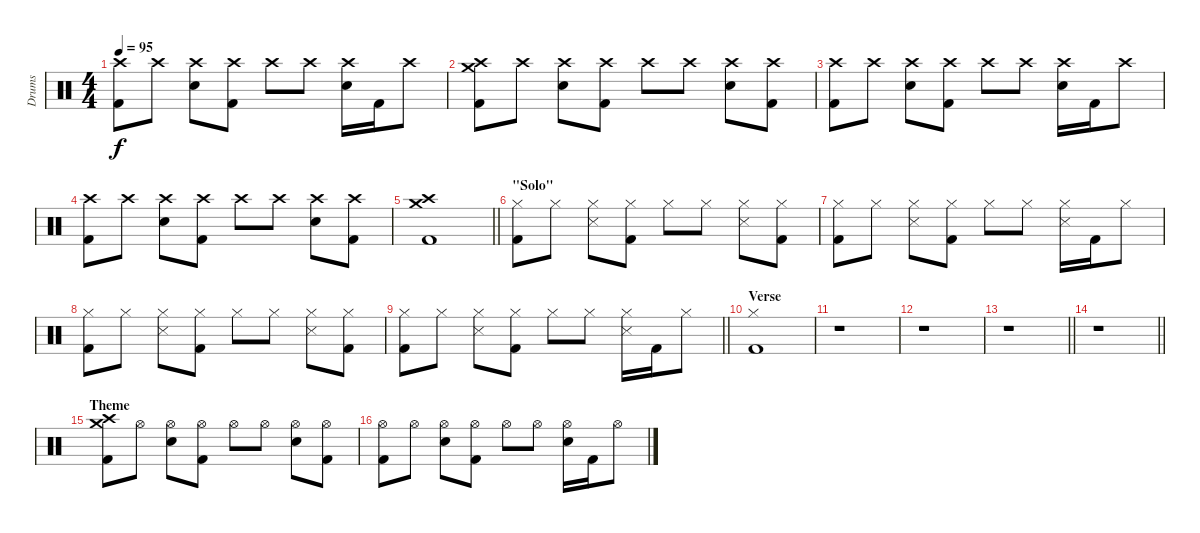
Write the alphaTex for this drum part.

\track ("Drums" "Drums") {instrument percussion}
\staff {score}
\articulation defaults
\ts (4 4)
\tempo 95
\clef neutral
\ks c
("Crash high (hit)" "Kick (hit) 2").8{dy f} "Crash high (hit)".8 ("Crash high (hit)" "Snare (hit) 2").8 ("Crash high (hit)" "Kick (hit) 2").8 "Crash high (hit)".8 "Crash high (hit)".8 ("Crash high (hit)" "Snare (hit) 2").16 "Kick (hit) 2".16 "Crash high (hit)".8 |
("Crash high (hit)" "Crash medium (hit)" "Kick (hit) 2").8 "Crash high (hit)".8 ("Crash high (hit)" "Snare (hit) 2").8 ("Crash high (hit)" "Kick (hit) 2").8 "Crash high (hit)".8 "Crash high (hit)".8 ("Crash high (hit)" "Snare (hit) 2").8 ("Crash high (hit)" "Kick (hit) 2").8 |
("Crash high (hit)" "Kick (hit) 2").8 "Crash high (hit)".8 ("Crash high (hit)" "Snare (hit) 2").8 ("Crash high (hit)" "Kick (hit) 2").8 "Crash high (hit)".8 "Crash high (hit)".8 ("Crash high (hit)" "Snare (hit) 2").16 "Kick (hit) 2".16 "Crash high (hit)".8 |
("Crash high (hit)" "Kick (hit) 2").8 "Crash high (hit)".8 ("Crash high (hit)" "Snare (hit) 2").8 ("Crash high (hit)" "Kick (hit) 2").8 "Crash high (hit)".8 "Crash high (hit)".8 ("Crash high (hit)" "Snare (hit) 2").8 ("Crash high (hit)" "Kick (hit) 2").8 |
\barLineRight lightlight
("Crash high (hit)" "Crash medium (hit)" "Kick (hit) 2").1 |
\section ("" "\"Solo\"")
("Hi-Hat (closed)" "Kick (hit) 2").8 "Hi-Hat (closed)".8 ("Hi-Hat (closed)" "Snare (side stick) 3").8 ("Hi-Hat (closed)" "Kick (hit) 2").8 "Hi-Hat (closed)".8 "Hi-Hat (closed)".8 ("Hi-Hat (closed)" "Snare (side stick) 3").8 ("Hi-Hat (closed)" "Kick (hit) 2").8 |
("Hi-Hat (closed)" "Kick (hit) 2").8 "Hi-Hat (closed)".8 ("Hi-Hat (closed)" "Snare (side stick) 3").8 ("Hi-Hat (closed)" "Kick (hit) 2").8 "Hi-Hat (closed)".8 "Hi-Hat (closed)".8 ("Hi-Hat (closed)" "Snare (side stick) 3").16 "Kick (hit) 2".16 "Hi-Hat (closed)".8 |
("Hi-Hat (closed)" "Kick (hit) 2").8 "Hi-Hat (closed)".8 ("Hi-Hat (closed)" "Snare (side stick) 3").8 ("Hi-Hat (closed)" "Kick (hit) 2").8 "Hi-Hat (closed)".8 "Hi-Hat (closed)".8 ("Hi-Hat (closed)" "Snare (side stick) 3").8 ("Hi-Hat (closed)" "Kick (hit) 2").8 |
\barLineRight lightlight
("Hi-Hat (closed)" "Kick (hit) 2").8 "Hi-Hat (closed)".8 ("Hi-Hat (closed)" "Snare (side stick) 3").8 ("Hi-Hat (closed)" "Kick (hit) 2").8 "Hi-Hat (closed)".8 "Hi-Hat (closed)".8 ("Hi-Hat (closed)" "Snare (side stick) 3").16 "Kick (hit) 2".16 "Hi-Hat (closed)".8 |
\section ("" "Verse")
("Hi-Hat (closed)" "Kick (hit) 2").1 |
r.1 |
r.1 |
\barLineRight lightlight
r.1 |
\barLineRight lightlight
r.1 |
\section ("" "Theme")
("Crash high (hit)" "Crash medium (hit)" "Kick (hit) 2").8 "Hi-Hat (open)".8 ("Hi-Hat (open)" "Snare (hit) 2").8 ("Hi-Hat (open)" "Kick (hit) 2").8 "Hi-Hat (open)".8 "Hi-Hat (open)".8 ("Hi-Hat (open)" "Snare (hit) 2").8 ("Hi-Hat (open)" "Kick (hit) 2").8 |
("Hi-Hat (open)" "Kick (hit) 2").8 "Hi-Hat (open)".8 ("Hi-Hat (open)" "Snare (hit) 2").8 ("Hi-Hat (open)" "Kick (hit) 2").8 "Hi-Hat (open)".8 "Hi-Hat (open)".8 ("Hi-Hat (open)" "Snare (hit) 2").16 "Kick (hit) 2".16 "Hi-Hat (open)".8
